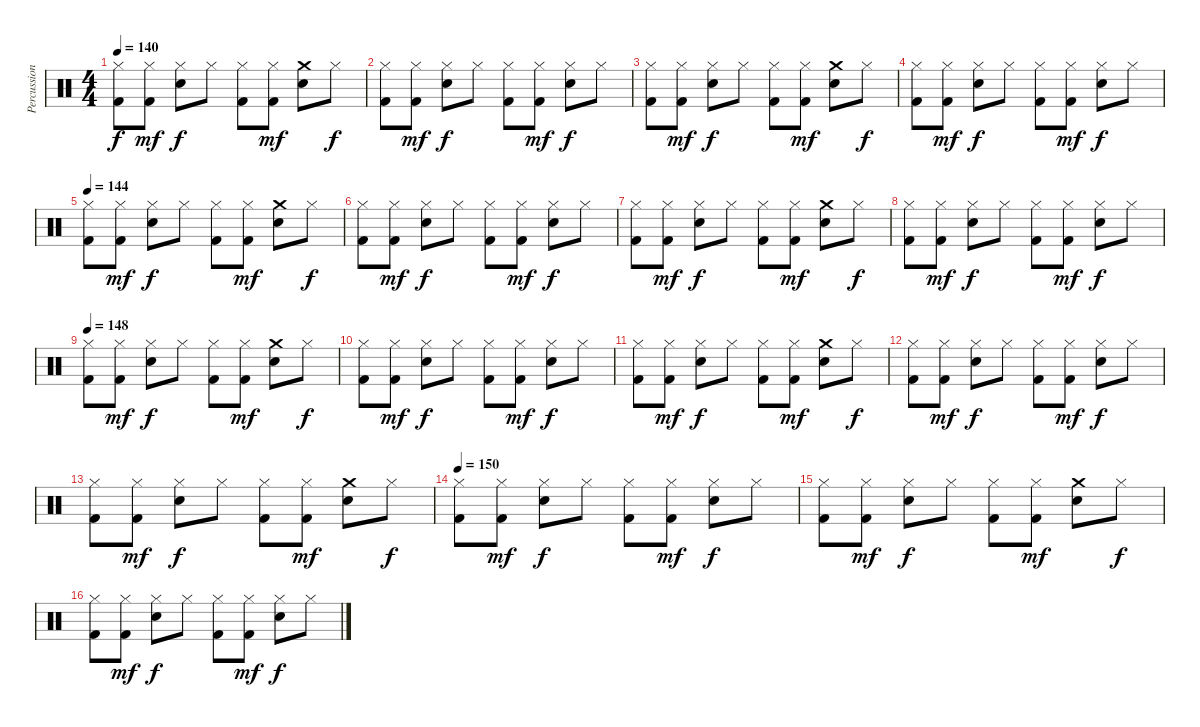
\track ("Percussion" "Percussion") {instrument percussion}
\staff {score}
\articulation defaults
\ts (4 4)
\tempo 140
\clef neutral
\ks c
("Hi-Hat (closed)" "Kick (hit) 2").8{dy f} ("Hi-Hat (closed)" "Kick (hit) 2").8{dy mf} ("Hi-Hat (closed)" "Snare (hit) 2").8{dy f} "Hi-Hat (closed)".8 ("Hi-Hat (closed)" "Kick (hit) 2").8 ("Hi-Hat (closed)" "Kick (hit) 2").8{dy mf} ("Crash medium (hit)" "Snare (hit) 2").8 "Hi-Hat (closed)".8{dy f} |
("Hi-Hat (closed)" "Kick (hit) 2").8 ("Hi-Hat (closed)" "Kick (hit) 2").8{dy mf} ("Hi-Hat (closed)" "Snare (hit) 2").8{dy f} "Hi-Hat (closed)".8 ("Hi-Hat (closed)" "Kick (hit) 2").8 ("Hi-Hat (closed)" "Kick (hit) 2").8{dy mf} ("Hi-Hat (closed)" "Snare (hit) 2").8{dy f} "Hi-Hat (closed)".8 |
("Hi-Hat (closed)" "Kick (hit) 2").8 ("Hi-Hat (closed)" "Kick (hit) 2").8{dy mf} ("Hi-Hat (closed)" "Snare (hit) 2").8{dy f} "Hi-Hat (closed)".8 ("Hi-Hat (closed)" "Kick (hit) 2").8 ("Hi-Hat (closed)" "Kick (hit) 2").8{dy mf} ("Crash medium (hit)" "Snare (hit) 2").8 "Hi-Hat (closed)".8{dy f} |
("Hi-Hat (closed)" "Kick (hit) 2").8 ("Hi-Hat (closed)" "Kick (hit) 2").8{dy mf} ("Hi-Hat (closed)" "Snare (hit) 2").8{dy f} "Hi-Hat (closed)".8 ("Hi-Hat (closed)" "Kick (hit) 2").8 ("Hi-Hat (closed)" "Kick (hit) 2").8{dy mf} ("Hi-Hat (closed)" "Snare (hit) 2").8{dy f} "Hi-Hat (closed)".8 |
\tempo 144
("Hi-Hat (closed)" "Kick (hit) 2").8 ("Hi-Hat (closed)" "Kick (hit) 2").8{dy mf} ("Hi-Hat (closed)" "Snare (hit) 2").8{dy f} "Hi-Hat (closed)".8 ("Hi-Hat (closed)" "Kick (hit) 2").8 ("Hi-Hat (closed)" "Kick (hit) 2").8{dy mf} ("Crash medium (hit)" "Snare (hit) 2").8 "Hi-Hat (closed)".8{dy f} |
("Hi-Hat (closed)" "Kick (hit) 2").8 ("Hi-Hat (closed)" "Kick (hit) 2").8{dy mf} ("Hi-Hat (closed)" "Snare (hit) 2").8{dy f} "Hi-Hat (closed)".8 ("Hi-Hat (closed)" "Kick (hit) 2").8 ("Hi-Hat (closed)" "Kick (hit) 2").8{dy mf} ("Hi-Hat (closed)" "Snare (hit) 2").8{dy f} "Hi-Hat (closed)".8 |
("Hi-Hat (closed)" "Kick (hit) 2").8 ("Hi-Hat (closed)" "Kick (hit) 2").8{dy mf} ("Hi-Hat (closed)" "Snare (hit) 2").8{dy f} "Hi-Hat (closed)".8 ("Hi-Hat (closed)" "Kick (hit) 2").8 ("Hi-Hat (closed)" "Kick (hit) 2").8{dy mf} ("Crash medium (hit)" "Snare (hit) 2").8 "Hi-Hat (closed)".8{dy f} |
("Hi-Hat (closed)" "Kick (hit) 2").8 ("Hi-Hat (closed)" "Kick (hit) 2").8{dy mf} ("Hi-Hat (closed)" "Snare (hit) 2").8{dy f} "Hi-Hat (closed)".8 ("Hi-Hat (closed)" "Kick (hit) 2").8 ("Hi-Hat (closed)" "Kick (hit) 2").8{dy mf} ("Hi-Hat (closed)" "Snare (hit) 2").8{dy f} "Hi-Hat (closed)".8 |
\tempo 148
("Hi-Hat (closed)" "Kick (hit) 2").8 ("Hi-Hat (closed)" "Kick (hit) 2").8{dy mf} ("Hi-Hat (closed)" "Snare (hit) 2").8{dy f} "Hi-Hat (closed)".8 ("Hi-Hat (closed)" "Kick (hit) 2").8 ("Hi-Hat (closed)" "Kick (hit) 2").8{dy mf} ("Crash medium (hit)" "Snare (hit) 2").8 "Hi-Hat (closed)".8{dy f} |
("Hi-Hat (closed)" "Kick (hit) 2").8 ("Hi-Hat (closed)" "Kick (hit) 2").8{dy mf} ("Hi-Hat (closed)" "Snare (hit) 2").8{dy f} "Hi-Hat (closed)".8 ("Hi-Hat (closed)" "Kick (hit) 2").8 ("Hi-Hat (closed)" "Kick (hit) 2").8{dy mf} ("Hi-Hat (closed)" "Snare (hit) 2").8{dy f} "Hi-Hat (closed)".8 |
("Hi-Hat (closed)" "Kick (hit) 2").8 ("Hi-Hat (closed)" "Kick (hit) 2").8{dy mf} ("Hi-Hat (closed)" "Snare (hit) 2").8{dy f} "Hi-Hat (closed)".8 ("Hi-Hat (closed)" "Kick (hit) 2").8 ("Hi-Hat (closed)" "Kick (hit) 2").8{dy mf} ("Crash medium (hit)" "Snare (hit) 2").8 "Hi-Hat (closed)".8{dy f} |
("Hi-Hat (closed)" "Kick (hit) 2").8 ("Hi-Hat (closed)" "Kick (hit) 2").8{dy mf} ("Hi-Hat (closed)" "Snare (hit) 2").8{dy f} "Hi-Hat (closed)".8 ("Hi-Hat (closed)" "Kick (hit) 2").8 ("Hi-Hat (closed)" "Kick (hit) 2").8{dy mf} ("Hi-Hat (closed)" "Snare (hit) 2").8{dy f} "Hi-Hat (closed)".8 |
("Hi-Hat (closed)" "Kick (hit) 2").8 ("Hi-Hat (closed)" "Kick (hit) 2").8{dy mf} ("Hi-Hat (closed)" "Snare (hit) 2").8{dy f} "Hi-Hat (closed)".8 ("Hi-Hat (closed)" "Kick (hit) 2").8 ("Hi-Hat (closed)" "Kick (hit) 2").8{dy mf} ("Crash medium (hit)" "Snare (hit) 2").8 "Hi-Hat (closed)".8{dy f} |
\tempo 150
("Hi-Hat (closed)" "Kick (hit) 2").8 ("Hi-Hat (closed)" "Kick (hit) 2").8{dy mf} ("Hi-Hat (closed)" "Snare (hit) 2").8{dy f} "Hi-Hat (closed)".8 ("Hi-Hat (closed)" "Kick (hit) 2").8 ("Hi-Hat (closed)" "Kick (hit) 2").8{dy mf} ("Hi-Hat (closed)" "Snare (hit) 2").8{dy f} "Hi-Hat (closed)".8 |
("Hi-Hat (closed)" "Kick (hit) 2").8 ("Hi-Hat (closed)" "Kick (hit) 2").8{dy mf} ("Hi-Hat (closed)" "Snare (hit) 2").8{dy f} "Hi-Hat (closed)".8 ("Hi-Hat (closed)" "Kick (hit) 2").8 ("Hi-Hat (closed)" "Kick (hit) 2").8{dy mf} ("Crash medium (hit)" "Snare (hit) 2").8 "Hi-Hat (closed)".8{dy f} |
("Hi-Hat (closed)" "Kick (hit) 2").8 ("Hi-Hat (closed)" "Kick (hit) 2").8{dy mf} ("Hi-Hat (closed)" "Snare (hit) 2").8{dy f} "Hi-Hat (closed)".8 ("Hi-Hat (closed)" "Kick (hit) 2").8 ("Hi-Hat (closed)" "Kick (hit) 2").8{dy mf} ("Hi-Hat (closed)" "Snare (hit) 2").8{dy f} "Hi-Hat (closed)".8
